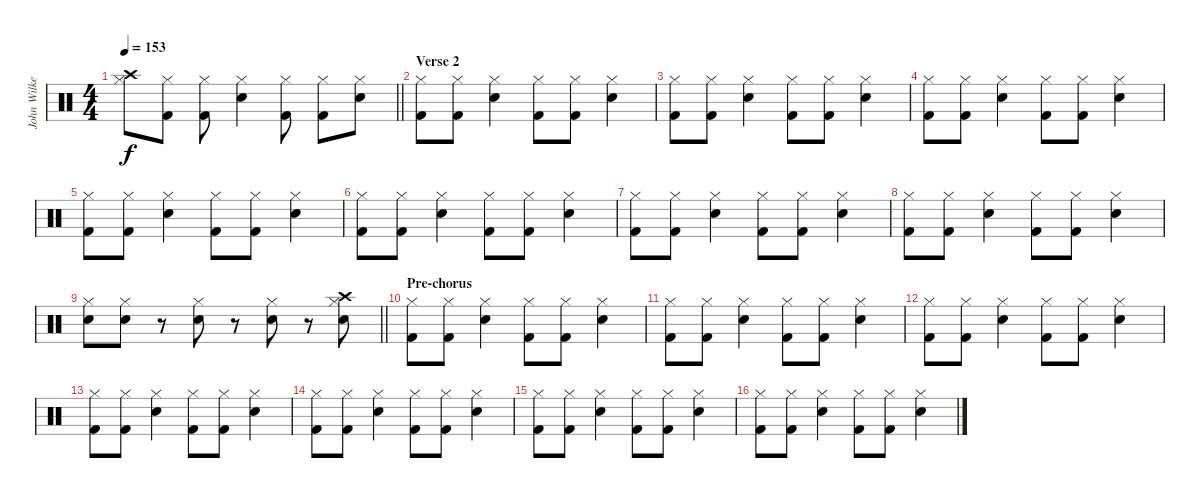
\track ("John Wilkes (Percussion)" "John Wilke") {instrument percussion}
\staff {score}
\articulation defaults
\ts (4 4)
\tempo 153
\clef neutral
\barLineRight lightlight
\ks c
("Crash high (hit)" "Hi-Hat (closed)").8{dy f} ("Kick (hit) 2" "Hi-Hat (closed)").8 ("Kick (hit) 2" "Hi-Hat (closed)").8 ("Snare (hit) 2" "Hi-Hat (closed)").4 ("Kick (hit) 2" "Hi-Hat (closed)").8 ("Kick (hit) 2" "Hi-Hat (closed)").8 ("Snare (hit) 2" "Hi-Hat (closed)").8 |
\section ("" "Verse 2")
("Kick (hit) 2" "Hi-Hat (closed)").8 ("Kick (hit) 2" "Hi-Hat (closed)").8 ("Snare (hit) 2" "Hi-Hat (closed)").4 ("Kick (hit) 2" "Hi-Hat (closed)").8 ("Kick (hit) 2" "Hi-Hat (closed)").8 ("Snare (hit) 2" "Hi-Hat (closed)").4 |
("Kick (hit) 2" "Hi-Hat (closed)").8 ("Kick (hit) 2" "Hi-Hat (closed)").8 ("Snare (hit) 2" "Hi-Hat (closed)").4 ("Kick (hit) 2" "Hi-Hat (closed)").8 ("Kick (hit) 2" "Hi-Hat (closed)").8 ("Snare (hit) 2" "Hi-Hat (closed)").4 |
("Kick (hit) 2" "Hi-Hat (closed)").8 ("Kick (hit) 2" "Hi-Hat (closed)").8 ("Snare (hit) 2" "Hi-Hat (closed)").4 ("Kick (hit) 2" "Hi-Hat (closed)").8 ("Kick (hit) 2" "Hi-Hat (closed)").8 ("Snare (hit) 2" "Hi-Hat (closed)").4 |
("Kick (hit) 2" "Hi-Hat (closed)").8 ("Kick (hit) 2" "Hi-Hat (closed)").8 ("Snare (hit) 2" "Hi-Hat (closed)").4 ("Kick (hit) 2" "Hi-Hat (closed)").8 ("Kick (hit) 2" "Hi-Hat (closed)").8 ("Snare (hit) 2" "Hi-Hat (closed)").4 |
("Kick (hit) 2" "Hi-Hat (closed)").8 ("Kick (hit) 2" "Hi-Hat (closed)").8 ("Snare (hit) 2" "Hi-Hat (closed)").4 ("Kick (hit) 2" "Hi-Hat (closed)").8 ("Kick (hit) 2" "Hi-Hat (closed)").8 ("Snare (hit) 2" "Hi-Hat (closed)").4 |
("Kick (hit) 2" "Hi-Hat (closed)").8 ("Kick (hit) 2" "Hi-Hat (closed)").8 ("Snare (hit) 2" "Hi-Hat (closed)").4 ("Kick (hit) 2" "Hi-Hat (closed)").8 ("Kick (hit) 2" "Hi-Hat (closed)").8 ("Snare (hit) 2" "Hi-Hat (closed)").4 |
("Kick (hit) 2" "Hi-Hat (closed)").8 ("Kick (hit) 2" "Hi-Hat (closed)").8 ("Snare (hit) 2" "Hi-Hat (closed)").4 ("Kick (hit) 2" "Hi-Hat (closed)").8 ("Kick (hit) 2" "Hi-Hat (closed)").8 ("Snare (hit) 2" "Hi-Hat (closed)").4 |
\barLineRight lightlight
("Snare (hit) 2" "Hi-Hat (closed)").8 ("Snare (hit) 2" "Hi-Hat (closed)").8 r.8 ("Snare (hit) 2" "Hi-Hat (closed)").8 r.8 ("Snare (hit) 2" "Hi-Hat (closed)").8 r.8 ("Snare (hit) 2" "Hi-Hat (closed)" "Crash high (hit)").8 |
\section ("" "Pre-chorus")
("Kick (hit) 2" "Hi-Hat (closed)").8 ("Kick (hit) 2" "Hi-Hat (closed)").8 ("Snare (hit) 2" "Hi-Hat (closed)").4 ("Kick (hit) 2" "Hi-Hat (closed)").8 ("Kick (hit) 2" "Hi-Hat (closed)").8 ("Snare (hit) 2" "Hi-Hat (closed)").4 |
("Kick (hit) 2" "Hi-Hat (closed)").8 ("Kick (hit) 2" "Hi-Hat (closed)").8 ("Snare (hit) 2" "Hi-Hat (closed)").4 ("Kick (hit) 2" "Hi-Hat (closed)").8 ("Kick (hit) 2" "Hi-Hat (closed)").8 ("Snare (hit) 2" "Hi-Hat (closed)").4 |
("Kick (hit) 2" "Hi-Hat (closed)").8 ("Kick (hit) 2" "Hi-Hat (closed)").8 ("Snare (hit) 2" "Hi-Hat (closed)").4 ("Kick (hit) 2" "Hi-Hat (closed)").8 ("Kick (hit) 2" "Hi-Hat (closed)").8 ("Snare (hit) 2" "Hi-Hat (closed)").4 |
("Kick (hit) 2" "Hi-Hat (closed)").8 ("Kick (hit) 2" "Hi-Hat (closed)").8 ("Snare (hit) 2" "Hi-Hat (closed)").4 ("Kick (hit) 2" "Hi-Hat (closed)").8 ("Kick (hit) 2" "Hi-Hat (closed)").8 ("Snare (hit) 2" "Hi-Hat (closed)").4 |
("Kick (hit) 2" "Hi-Hat (closed)").8 ("Kick (hit) 2" "Hi-Hat (closed)").8 ("Snare (hit) 2" "Hi-Hat (closed)").4 ("Kick (hit) 2" "Hi-Hat (closed)").8 ("Kick (hit) 2" "Hi-Hat (closed)").8 ("Snare (hit) 2" "Hi-Hat (closed)").4 |
("Kick (hit) 2" "Hi-Hat (closed)").8 ("Kick (hit) 2" "Hi-Hat (closed)").8 ("Snare (hit) 2" "Hi-Hat (closed)").4 ("Kick (hit) 2" "Hi-Hat (closed)").8 ("Kick (hit) 2" "Hi-Hat (closed)").8 ("Snare (hit) 2" "Hi-Hat (closed)").4 |
("Kick (hit) 2" "Hi-Hat (closed)").8 ("Kick (hit) 2" "Hi-Hat (closed)").8 ("Snare (hit) 2" "Hi-Hat (closed)").4 ("Kick (hit) 2" "Hi-Hat (closed)").8 ("Kick (hit) 2" "Hi-Hat (closed)").8 ("Snare (hit) 2" "Hi-Hat (closed)").4
